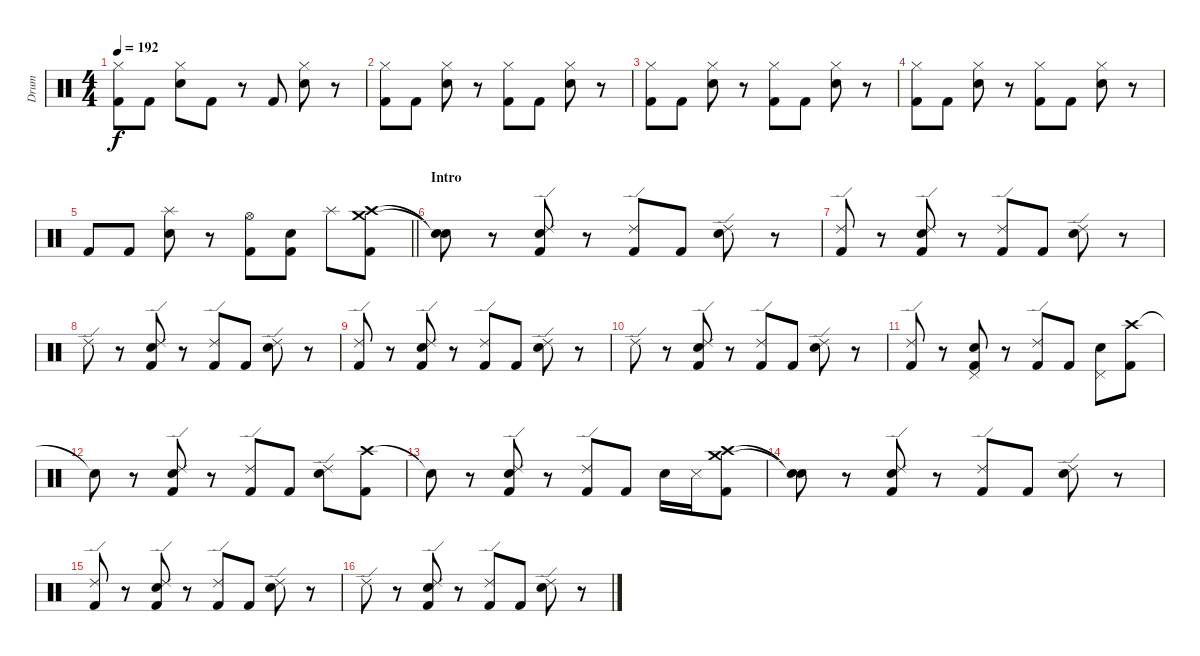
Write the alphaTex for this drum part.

\track ("Drum" "Drum") {instrument percussion}
\staff {score}
\articulation defaults
\ts (4 4)
\tempo 192
\clef neutral
\ks c
("Hi-Hat (closed)" "Kick (hit) 2").8{dy f} "Kick (hit) 2".8 ("Hi-Hat (closed)" "Electric Snare (hit)").8 "Kick (hit) 2".8 r.8 "Kick (hit) 2".8 ("Hi-Hat (closed)" "Electric Snare (hit)").8 r.8 |
("Hi-Hat (closed)" "Kick (hit) 2").8 "Kick (hit) 2".8 ("Hi-Hat (closed)" "Electric Snare (hit)").8 r.8 ("Hi-Hat (closed)" "Kick (hit) 2").8 "Kick (hit) 2".8 ("Hi-Hat (closed)" "Electric Snare (hit)").8 r.8 |
("Hi-Hat (closed)" "Kick (hit) 2").8 "Kick (hit) 2".8 ("Hi-Hat (closed)" "Electric Snare (hit)").8 r.8 ("Hi-Hat (closed)" "Kick (hit) 2").8 "Kick (hit) 2".8 ("Hi-Hat (closed)" "Electric Snare (hit)").8 r.8 |
("Hi-Hat (closed)" "Kick (hit) 2").8 "Kick (hit) 2".8 ("Hi-Hat (closed)" "Electric Snare (hit)").8 r.8 ("Hi-Hat (closed)" "Kick (hit) 2").8 "Kick (hit) 2".8 ("Hi-Hat (closed)" "Electric Snare (hit)").8 r.8 |
\barLineRight lightlight "Kick (hit) 2".8 "Kick (hit) 2".8
("Splash (hit)" "Electric Snare (hit)").8 r.8 ("Hi-Hat (open)" "Kick (hit) 2").8 ("Electric Snare (hit)" "Kick (hit) 2").8 "Splash (hit)".8 ("Crash medium (hit)" "Crash high (hit)" "Kick (hit) 2").8 |
\section ("" "Intro")
("Snare (hit)"{t} "Snare (hit)"{t}).8 r.8 ("Ride (edge) 2" "Electric Snare (hit)" "Kick (hit) 2").8 r.8 ("Ride (edge) 2" "Kick (hit) 2").8 "Kick (hit) 2".8 ("Ride (edge) 2" "Electric Snare (hit)").8 r.8 |
("Ride (edge) 2" "Kick (hit) 2").8 r.8 ("Ride (edge) 2" "Electric Snare (hit)" "Kick (hit) 2").8 r.8 ("Ride (edge) 2" "Kick (hit) 2").8 "Kick (hit) 2".8 ("Ride (edge) 2" "Electric Snare (hit)").8 r.8 |
"Ride (edge) 2".8 r.8 ("Ride (edge) 2" "Electric Snare (hit)" "Kick (hit) 2").8 r.8 ("Ride (edge) 2" "Kick (hit) 2").8 "Kick (hit) 2".8 ("Ride (edge) 2" "Electric Snare (hit)").8 r.8 |
("Ride (edge) 2" "Kick (hit) 2").8 r.8 ("Ride (edge) 2" "Electric Snare (hit)" "Kick (hit) 2").8 r.8 ("Ride (edge) 2" "Kick (hit) 2").8 "Kick (hit) 2".8 ("Ride (edge) 2" "Electric Snare (hit)").8 r.8 |
"Ride (edge) 2".8 r.8 ("Ride (edge) 2" "Electric Snare (hit)" "Kick (hit) 2").8 r.8 ("Ride (edge) 2" "Kick (hit) 2").8 "Kick (hit) 2".8 ("Ride (edge) 2" "Electric Snare (hit)").8 r.8 |
("Ride (edge) 2" "Kick (hit) 2").8 r.8 ("Pedal Hi-Hat (hit)" "Electric Snare (hit)" "Kick (hit) 2").8 r.8 ("Ride (edge) 2" "Kick (hit) 2").8 "Kick (hit) 2".8 ("Pedal Hi-Hat (hit)" "Electric Snare (hit)").8 ("Crash high (hit)" "Kick (hit) 2").8 |
"Snare (hit)"{t}.8 r.8 ("Ride (edge) 2" "Electric Snare (hit)" "Kick (hit) 2").8 r.8 ("Ride (edge) 2" "Kick (hit) 2").8 "Kick (hit) 2".8 ("Ride (edge) 2" "Electric Snare (hit)").8 ("Crash high (hit)" "Kick (hit) 2").8 |
"Snare (hit)"{t}.8 r.8 ("Ride (edge) 2" "Electric Snare (hit)" "Kick (hit) 2").8 r.8 ("Ride (edge) 2" "Kick (hit) 2").8 "Kick (hit) 2".8 "Electric Snare (hit)".16 "Snare (side stick) 3".16 ("Crash high (hit)" "Crash medium (hit)" "Kick (hit) 2").8 |
("Snare (hit)"{t} "Snare (hit)"{t}).8 r.8 ("Ride (edge) 2" "Electric Snare (hit)" "Kick (hit) 2").8 r.8 ("Ride (edge) 2" "Kick (hit) 2").8 "Kick (hit) 2".8 ("Ride (edge) 2" "Electric Snare (hit)").8 r.8 |
("Ride (edge) 2" "Kick (hit) 2").8 r.8 ("Ride (edge) 2" "Electric Snare (hit)" "Kick (hit) 2").8 r.8 ("Ride (edge) 2" "Kick (hit) 2").8 "Kick (hit) 2".8 ("Ride (edge) 2" "Electric Snare (hit)").8 r.8 |
"Ride (edge) 2".8 r.8 ("Ride (edge) 2" "Electric Snare (hit)" "Kick (hit) 2").8 r.8 ("Ride (edge) 2" "Kick (hit) 2").8 "Kick (hit) 2".8 ("Ride (edge) 2" "Electric Snare (hit)").8 r.8
